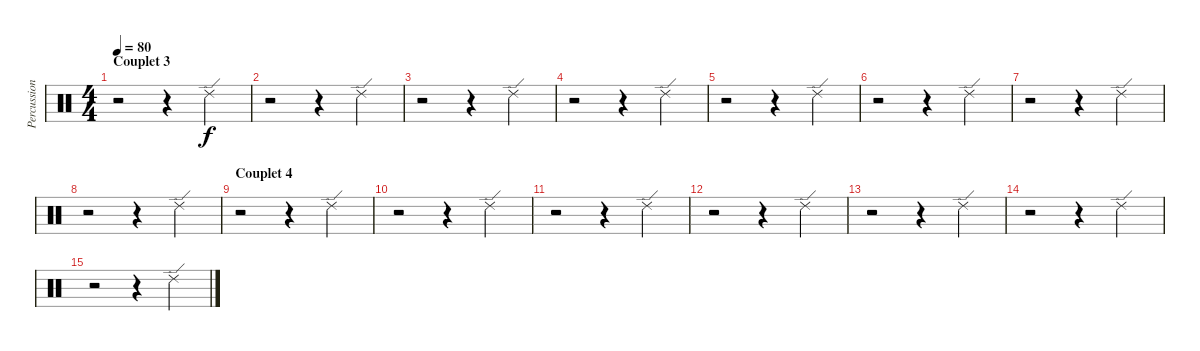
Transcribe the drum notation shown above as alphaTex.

\track ("Percussions" "Percussion") {instrument percussion}
\staff {score}
\articulation defaults
\ts (4 4)
\section ("" "Couplet 3")
\tempo 80
\clef neutral
\ks c
r.2{dy f} r.4 "Ride (edge) 2".4 |
r.2 r.4 "Ride (edge) 2".4 |
r.2 r.4 "Ride (edge) 2".4 |
r.2 r.4 "Ride (edge) 2".4 |
r.2 r.4 "Ride (edge) 2".4 |
r.2 r.4 "Ride (edge) 2".4 |
r.2 r.4 "Ride (edge) 2".4 |
r.2 r.4 "Ride (edge) 2".4 |
\section ("" "Couplet 4")
r.2 r.4 "Ride (edge) 2".4 |
r.2 r.4 "Ride (edge) 2".4 |
r.2 r.4 "Ride (edge) 2".4 |
r.2 r.4 "Ride (edge) 2".4 |
r.2 r.4 "Ride (edge) 2".4 |
r.2 r.4 "Ride (edge) 2".4 |
r.2 r.4 "Ride (edge) 2".4
